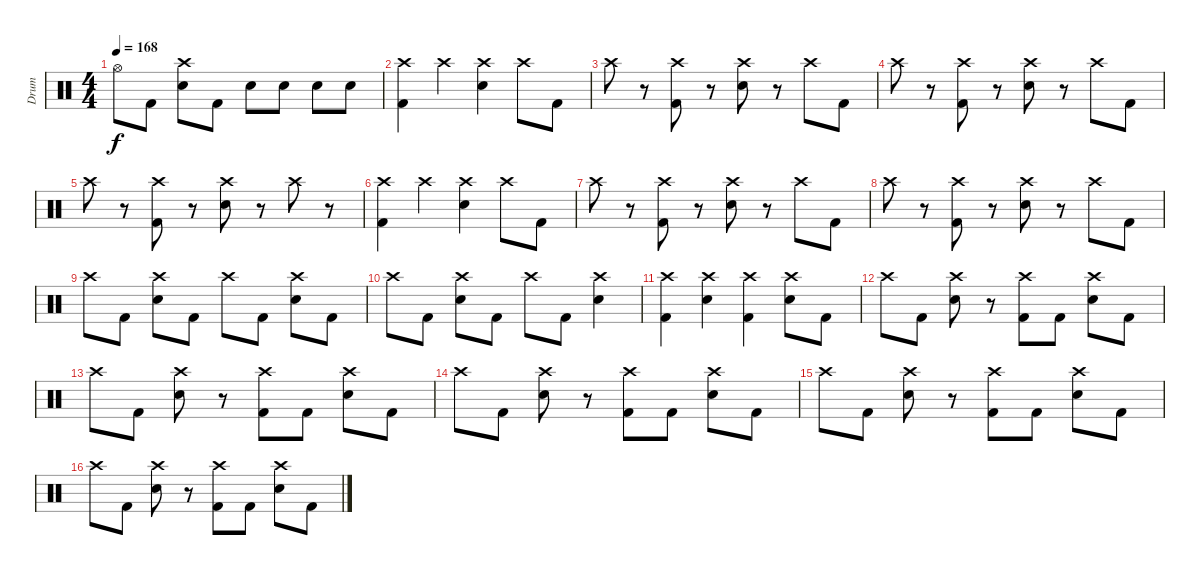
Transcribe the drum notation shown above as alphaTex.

\track ("Drum" "Drum") {instrument percussion}
\staff {score}
\articulation defaults
\ts (4 4)
\tempo 168
\clef neutral
\ks c "Hi-Hat (open)".8{dy f} "Kick (hit) 2".8
("Crash high (hit)" "Electric Snare (hit)").8 "Kick (hit) 2".8 "Electric Snare (hit)".8 "Electric Snare (hit)".8 "Electric Snare (hit)".8 "Electric Snare (hit)".8 |
("Crash high (hit)" "Kick (hit) 2").4 "Crash high (hit)".4 ("Crash high (hit)" "Electric Snare (hit)").4 "Crash high (hit)".8 "Kick (hit) 2".8 |
"Crash high (hit)".8 r.8 ("Crash high (hit)" "Kick (hit) 2").8 r.8 ("Crash high (hit)" "Electric Snare (hit)").8 r.8 "Crash high (hit)".8 "Kick (hit) 2".8 |
"Crash high (hit)".8 r.8 ("Crash high (hit)" "Kick (hit) 2").8 r.8 ("Electric Snare (hit)" "Crash high (hit)").8 r.8 "Crash high (hit)".8 "Kick (hit) 2".8 |
"Crash high (hit)".8 r.8 ("Crash high (hit)" "Kick (hit) 2").8 r.8 ("Crash high (hit)" "Electric Snare (hit)").8 r.8 "Crash high (hit)".8 r.8 |
("Crash high (hit)" "Kick (hit) 2").4 "Crash high (hit)".4 ("Crash high (hit)" "Electric Snare (hit)").4 "Crash high (hit)".8 "Kick (hit) 2".8 |
"Crash high (hit)".8 r.8 ("Crash high (hit)" "Kick (hit) 2").8 r.8 ("Crash high (hit)" "Electric Snare (hit)").8 r.8 "Crash high (hit)".8 "Kick (hit) 2".8 |
"Crash high (hit)".8 r.8 ("Crash high (hit)" "Kick (hit) 2").8 r.8 ("Electric Snare (hit)" "Crash high (hit)").8 r.8 "Crash high (hit)".8 "Kick (hit) 2".8 |
"Crash high (hit)".8 "Kick (hit) 2".8 ("Crash high (hit)" "Electric Snare (hit)").8 "Kick (hit) 2".8 "Crash high (hit)".8 "Kick (hit) 2".8 ("Crash high (hit)" "Electric Snare (hit)").8 "Kick (hit) 2".8 |
"Crash high (hit)".8 "Kick (hit) 2".8 ("Crash high (hit)" "Electric Snare (hit)").8 "Kick (hit) 2".8 "Crash high (hit)".8 "Kick (hit) 2".8 ("Crash high (hit)" "Electric Snare (hit)").4 |
("Crash high (hit)" "Kick (hit) 2").4 ("Crash high (hit)" "Electric Snare (hit)").4 ("Crash high (hit)" "Kick (hit) 2").4 ("Crash high (hit)" "Electric Snare (hit)").8 "Kick (hit) 2".8 |
"Crash high (hit)".8 "Kick (hit) 2".8 ("Crash high (hit)" "Electric Snare (hit)").8 r.8 ("Crash high (hit)" "Kick (hit) 2").8 "Kick (hit) 2".8 ("Crash high (hit)" "Electric Snare (hit)").8 "Kick (hit) 2".8 |
"Crash high (hit)".8 "Kick (hit) 2".8 ("Crash high (hit)" "Electric Snare (hit)").8 r.8 ("Crash high (hit)" "Kick (hit) 2").8 "Kick (hit) 2".8 ("Crash high (hit)" "Electric Snare (hit)").8 "Kick (hit) 2".8 |
"Crash high (hit)".8 "Kick (hit) 2".8 ("Crash high (hit)" "Electric Snare (hit)").8 r.8 ("Crash high (hit)" "Kick (hit) 2").8 "Kick (hit) 2".8 ("Crash high (hit)" "Electric Snare (hit)").8 "Kick (hit) 2".8 |
"Crash high (hit)".8 "Kick (hit) 2".8 ("Crash high (hit)" "Electric Snare (hit)").8 r.8 ("Crash high (hit)" "Kick (hit) 2").8 "Kick (hit) 2".8 ("Crash high (hit)" "Electric Snare (hit)").8 "Kick (hit) 2".8 |
"Crash high (hit)".8 "Kick (hit) 2".8 ("Crash high (hit)" "Electric Snare (hit)").8 r.8 ("Crash high (hit)" "Kick (hit) 2").8 "Kick (hit) 2".8 ("Crash high (hit)" "Electric Snare (hit)").8 "Kick (hit) 2".8
